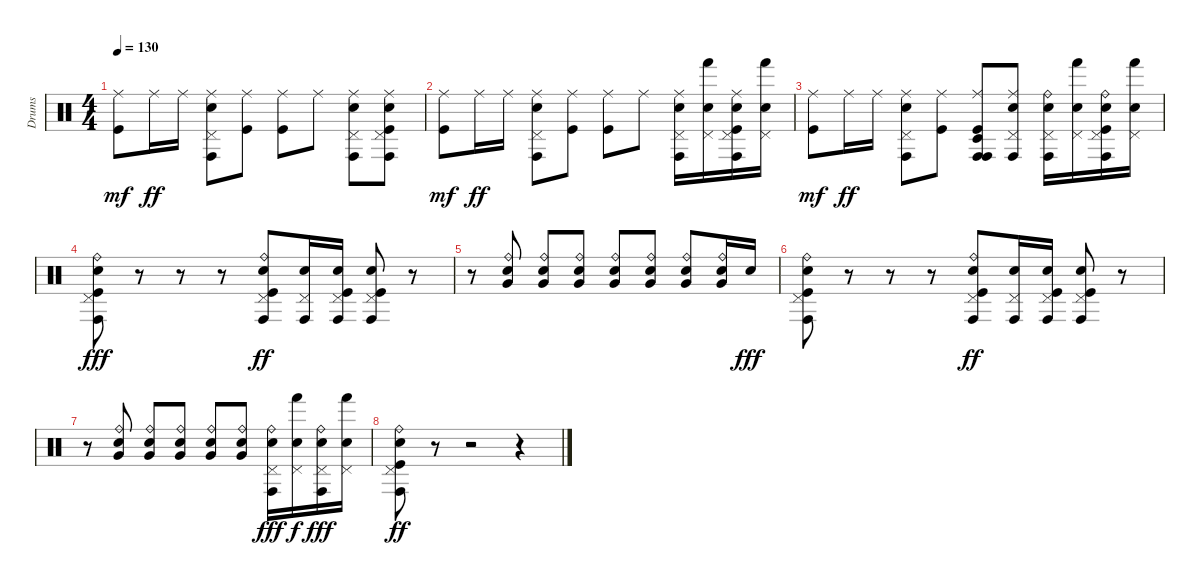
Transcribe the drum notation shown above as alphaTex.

\track ("Drums" "Drums") {instrument percussion}
\staff {score}
\articulation defaults
\ts (4 4)
\tempo 130
\clef neutral
\ks c
("Ride (middle)" "Kick (hit)").8{dy mf} "Ride (middle)".16{dy ff} "Ride (middle)".16 ("Ride (middle)" "Pedal Hi-Hat (hit)" "Conga high (hit)" "Electric Snare (hit)").8 ("Ride (middle)" "Kick (hit)").8 ("Ride (middle)" "Kick (hit)").8 "Ride (middle)".8 ("Ride (middle)" "Pedal Hi-Hat (hit)" "Conga high (hit)" "Electric Snare (hit)").8 ("Ride (middle)" "Pedal Hi-Hat (hit)" "Conga high (hit)" "Electric Snare (hit)" "Kick (hit)").8 |
("Ride (middle)" "Kick (hit)").8{dy mf} "Ride (middle)".16{dy ff} "Ride (middle)".16 ("Ride (middle)" "Pedal Hi-Hat (hit)" "Conga high (hit)" "Electric Snare (hit)").8 ("Ride (middle)" "Kick (hit)").8 ("Ride (middle)" "Kick (hit)").8 "Ride (middle)".8 ("Ride (middle)" "Pedal Hi-Hat (hit)" "Conga high (hit)" "Electric Snare (hit)").16 ("Pedal Hi-Hat (hit)" "Hand (hit)" "Electric Snare (hit)").16 ("Ride (middle)" "Pedal Hi-Hat (hit)" "Conga high (hit)" "Electric Snare (hit)" "Kick (hit)").16 ("Pedal Hi-Hat (hit)" "Hand (hit)" "Electric Snare (hit)").16 |
("Ride (middle)" "Kick (hit)").8{dy mf} "Ride (middle)".16{dy ff} "Ride (middle)".16 ("Ride (middle)" "Pedal Hi-Hat (hit)" "Conga high (hit)" "Electric Snare (hit)").8 ("Ride (middle)" "Kick (hit)").8 ("Ride (middle)" "Timbale low (hit)" "Conga high (hit)" "Conga high (hit)" "Kick (hit)").8 ("Ride (middle)" "Pedal Hi-Hat (hit)" "Conga high (hit)" "Electric Snare (hit)").8 ("Ride (bell)" "Pedal Hi-Hat (hit)" "Conga high (hit)" "Electric Snare (hit)").16 ("Pedal Hi-Hat (hit)" "Hand (hit)" "Electric Snare (hit)").16 ("Ride (bell)" "Pedal Hi-Hat (hit)" "Conga high (hit)" "Electric Snare (hit)" "Kick (hit)").16 ("Pedal Hi-Hat (hit)" "Hand (hit)" "Electric Snare (hit)").16 |
("Ride (bell)" "Pedal Hi-Hat (hit)" "Conga high (hit)" "Electric Snare (hit)" "Kick (hit)").8{dy fff} r.8 r.8 r.8 ("Ride (bell)" "Pedal Hi-Hat (hit)" "Conga high (hit)" "Electric Snare (hit)" "Kick (hit)").8{dy ff} ("Pedal Hi-Hat (hit)" "Conga high (hit)" "Electric Snare (hit)").16 ("Pedal Hi-Hat (hit)" "Conga high (hit)" "Electric Snare (hit)" "Kick (hit)").16 ("Pedal Hi-Hat (hit)" "Conga high (hit)" "Electric Snare (hit)" "Kick (hit)").8 r.8 |
r.8 ("Ride (bell)" "Electric Snare (hit)" "Very Low Tom (hit)").8 ("Ride (bell)" "Electric Snare (hit)" "Very Low Tom (hit)").8 ("Ride (bell)" "Electric Snare (hit)" "Very Low Tom (hit)").8 ("Ride (bell)" "Electric Snare (hit)" "Very Low Tom (hit)").8 ("Ride (bell)" "Electric Snare (hit)" "Very Low Tom (hit)").8 ("Ride (bell)" "Electric Snare (hit)" "Very Low Tom (hit)").8 ("Ride (bell)" "Electric Snare (hit)" "Very Low Tom (hit)").16 "Electric Snare (hit)".16{dy fff} |
("Ride (bell)" "Pedal Hi-Hat (hit)" "Conga high (hit)" "Electric Snare (hit)" "Kick (hit)").8 r.8 r.8 r.8 ("Ride (bell)" "Pedal Hi-Hat (hit)" "Conga high (hit)" "Electric Snare (hit)" "Kick (hit)").8{dy ff} ("Pedal Hi-Hat (hit)" "Conga high (hit)" "Electric Snare (hit)").16 ("Pedal Hi-Hat (hit)" "Conga high (hit)" "Electric Snare (hit)" "Kick (hit)").16 ("Pedal Hi-Hat (hit)" "Conga high (hit)" "Electric Snare (hit)" "Kick (hit)").8 r.8 |
r.8 ("Ride (bell)" "Electric Snare (hit)" "Very Low Tom (hit)").8 ("Ride (bell)" "Electric Snare (hit)" "Very Low Tom (hit)").8 ("Ride (bell)" "Electric Snare (hit)" "Very Low Tom (hit)").8 ("Ride (bell)" "Electric Snare (hit)" "Very Low Tom (hit)").8 ("Ride (bell)" "Electric Snare (hit)" "Very Low Tom (hit)").8 ("Ride (bell)" "Pedal Hi-Hat (hit)" "Conga high (hit)" "Electric Snare (hit)").16{dy fff} ("Pedal Hi-Hat (hit)" "Hand (hit)" "Electric Snare (hit)").16{dy f} ("Ride (bell)" "Pedal Hi-Hat (hit)" "Conga high (hit)" "Electric Snare (hit)").16{dy fff} ("Pedal Hi-Hat (hit)" "Hand (hit)" "Electric Snare (hit)").16 |
("Ride (bell)" "Pedal Hi-Hat (hit)" "Conga high (hit)" "Electric Snare (hit)" "Kick (hit)").8{dy ff} r.8 r.2 r.4
